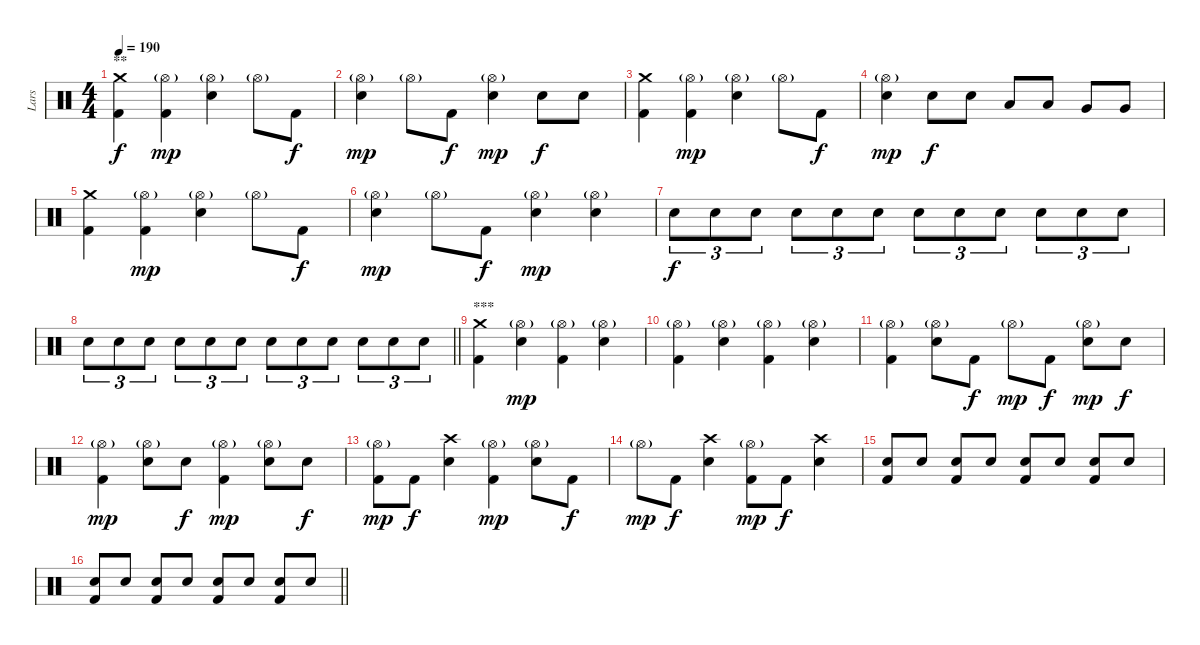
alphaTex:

\track ("Lars" "Lars") {instrument percussion}
\staff {score}
\articulation defaults
\ts (4 4)
\section ("" "**")
\tempo 190
\clef neutral
\ks c
("Crash medium (hit)" "Kick (hit) 2").4{dy f} ("Hi-Hat (open)"{g} "Kick (hit) 2").4{dy mp} ("Hi-Hat (open)"{g} "Electric Snare (hit)").4 "Hi-Hat (open)"{g}.8 "Kick (hit) 2".8{dy f} |
("Hi-Hat (open)"{g} "Electric Snare (hit)").4{dy mp} "Hi-Hat (open)"{g}.8 "Kick (hit) 2".8{dy f} ("Hi-Hat (open)"{g} "Electric Snare (hit)").4{dy mp} "Electric Snare (hit)".8{dy f} "Electric Snare (hit)".8 |
("Crash medium (hit)" "Kick (hit) 2").4 ("Hi-Hat (open)"{g} "Kick (hit) 2").4{dy mp} ("Hi-Hat (open)"{g} "Electric Snare (hit)").4 "Hi-Hat (open)"{g}.8 "Kick (hit) 2".8{dy f} |
("Hi-Hat (open)"{g} "Electric Snare (hit)").4{dy mp} "Electric Snare (hit)".8{dy f} "Electric Snare (hit)".8 "Low Tom (hit)".8 "Low Tom (hit)".8 "Very Low Tom (hit)".8 "Very Low Tom (hit)".8 |
("Crash medium (hit)" "Kick (hit) 2").4 ("Hi-Hat (open)"{g} "Kick (hit) 2").4{dy mp} ("Hi-Hat (open)"{g} "Electric Snare (hit)").4 "Hi-Hat (open)"{g}.8 "Kick (hit) 2".8{dy f} |
("Hi-Hat (open)"{g} "Electric Snare (hit)").4{dy mp} "Hi-Hat (open)"{g}.8 "Kick (hit) 2".8{dy f} ("Hi-Hat (open)"{g} "Electric Snare (hit)").4{dy mp} ("Hi-Hat (open)"{g} "Electric Snare (hit)").4 |
"Electric Snare (hit)".8{tu (3 2) dy f} "Electric Snare (hit)".8{tu (3 2)} "Electric Snare (hit)".8{tu (3 2)} "Electric Snare (hit)".8{tu (3 2)} "Electric Snare (hit)".8{tu (3 2)} "Electric Snare (hit)".8{tu (3 2)} "Electric Snare (hit)".8{tu (3 2)} "Electric Snare (hit)".8{tu (3 2)} "Electric Snare (hit)".8{tu (3 2)} "Electric Snare (hit)".8{tu (3 2)} "Electric Snare (hit)".8{tu (3 2)} "Electric Snare (hit)".8{tu (3 2)} |
\barLineRight lightlight "Electric Snare (hit)".8{tu (3 2)} "Electric Snare (hit)".8{tu (3 2)} "Electric Snare (hit)".8{tu (3 2)} "Electric Snare (hit)".8{tu (3 2)} "Electric Snare (hit)".8{tu (3 2)} "Electric Snare (hit)".8{tu (3 2)} "Electric Snare (hit)".8{tu (3 2)} "Electric Snare (hit)".8{tu (3 2)} "Electric Snare (hit)".8{tu (3 2)} "Electric Snare (hit)".8{tu (3 2)} "Electric Snare (hit)".8{tu (3 2)} "Electric Snare (hit)".8{tu (3 2)}
|
\section ("" "***")
("Crash medium (hit)" "Kick (hit) 2").4 ("Hi-Hat (open)"{g} "Electric Snare (hit)").4{dy mp} ("Hi-Hat (open)"{g} "Kick (hit) 2").4 ("Hi-Hat (open)"{g} "Electric Snare (hit)").4 |
("Hi-Hat (open)"{g} "Kick (hit) 2").4 ("Hi-Hat (open)"{g} "Electric Snare (hit)").4 ("Hi-Hat (open)"{g} "Kick (hit) 2").4 ("Hi-Hat (open)"{g} "Electric Snare (hit)").4 |
("Hi-Hat (open)"{g} "Kick (hit) 2").4 ("Hi-Hat (open)"{g} "Electric Snare (hit)").8 "Kick (hit) 2".8{dy f} "Hi-Hat (open)"{g}.8{dy mp} "Kick (hit) 2".8{dy f} ("Hi-Hat (open)"{g} "Electric Snare (hit)").8{dy mp} "Electric Snare (hit)".8{dy f} |
("Hi-Hat (open)"{g} "Kick (hit) 2").4{dy mp} ("Hi-Hat (open)"{g} "Electric Snare (hit)").8 "Electric Snare (hit)".8{dy f} ("Hi-Hat (open)"{g} "Kick (hit) 2").4{dy mp} ("Hi-Hat (open)"{g} "Electric Snare (hit)").8 "Electric Snare (hit)".8{dy f} |
("Hi-Hat (open)"{g} "Kick (hit) 2").8{dy mp} "Kick (hit) 2".8{dy f} ("Crash high (hit)" "Electric Snare (hit)").4 ("Hi-Hat (open)"{g} "Kick (hit) 2").4{dy mp} ("Hi-Hat (open)"{g} "Electric Snare (hit)").8 "Kick (hit) 2".8{dy f} |
"Hi-Hat (open)"{g}.8{dy mp} "Kick (hit) 2".8{dy f} ("Crash high (hit)" "Electric Snare (hit)").4 ("Hi-Hat (open)"{g} "Kick (hit) 2").8{dy mp} "Kick (hit) 2".8{dy f} ("Crash high (hit)" "Electric Snare (hit)").4 |
("Electric Snare (hit)" "Kick (hit) 2").8{volume 11} "Electric Snare (hit)".8 ("Electric Snare (hit)" "Kick (hit) 2").8{volume 15} "Electric Snare (hit)".8 ("Electric Snare (hit)" "Kick (hit) 2").8 "Electric Snare (hit)".8 ("Electric Snare (hit)" "Kick (hit) 2").8 "Electric Snare (hit)".8 |
\barLineRight lightlight
("Electric Snare (hit)" "Kick (hit) 2").8 "Electric Snare (hit)".8 ("Electric Snare (hit)" "Kick (hit) 2").8 "Electric Snare (hit)".8 ("Electric Snare (hit)" "Kick (hit) 2").8 "Electric Snare (hit)".8 ("Electric Snare (hit)" "Kick (hit) 2").8 "Electric Snare (hit)".8
